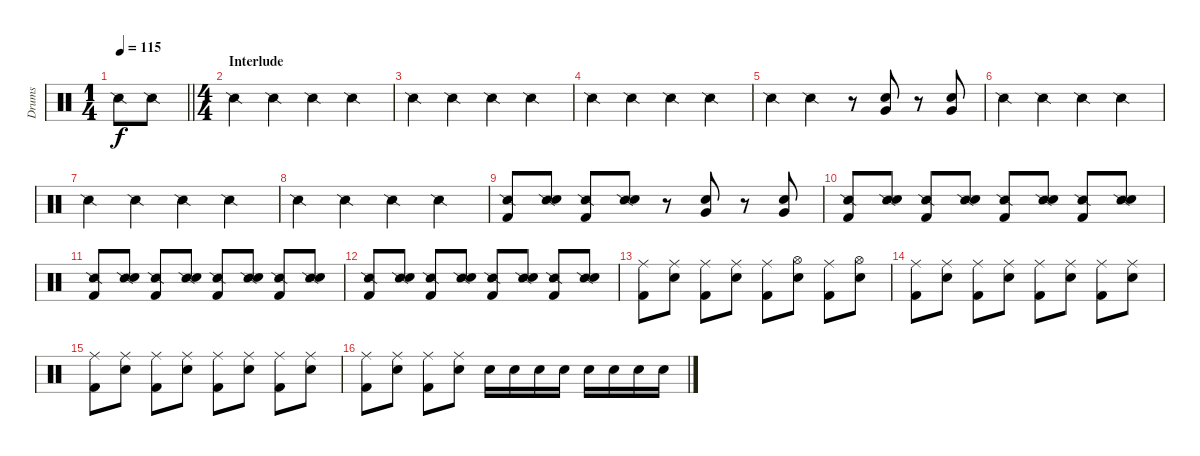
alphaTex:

\track ("Drums" "Drums") {instrument percussion}
\staff {score}
\articulation defaults
\ts (1 4)
\tempo 115
\clef neutral
\barLineRight lightlight
\ks c "Snare (side stick) 2".8{dy f} "Snare (side stick) 2".8
|
\ts (4 4)
\section ("" "Interlude")
"Snare (side stick) 2".4 "Snare (side stick) 2".4 "Snare (side stick) 2".4 "Snare (side stick) 2".4 |
"Snare (side stick) 2".4 "Snare (side stick) 2".4 "Snare (side stick) 2".4 "Snare (side stick) 2".4 |
"Snare (side stick) 2".4 "Snare (side stick) 2".4 "Snare (side stick) 2".4 "Snare (side stick) 2".4 |
"Snare (side stick) 2".4 "Snare (side stick) 2".4 r.8 ("Snare (hit) 2" "Very Low Tom (hit)").8 r.8 ("Snare (hit) 2" "Very Low Tom (hit)").8 |
"Snare (side stick) 2".4 "Snare (side stick) 2".4 "Snare (side stick) 2".4 "Snare (side stick) 2".4 |
"Snare (side stick) 2".4 "Snare (side stick) 2".4 "Snare (side stick) 2".4 "Snare (side stick) 2".4 |
"Snare (side stick) 2".4 "Snare (side stick) 2".4 "Snare (side stick) 2".4 "Snare (side stick) 2".4 |
("Snare (side stick) 2" "Kick (hit) 2").8 ("Snare (side stick) 2" "Snare (hit) 2").8 ("Snare (side stick) 2" "Kick (hit) 2").8 ("Snare (side stick) 2" "Snare (hit) 2").8 r.8 ("Snare (hit) 2" "Very Low Tom (hit)").8 r.8 ("Snare (hit) 2" "Very Low Tom (hit)").8 |
("Snare (side stick) 2" "Kick (hit) 2").8 ("Snare (side stick) 2" "Snare (hit) 2").8 ("Snare (side stick) 2" "Kick (hit) 2").8 ("Snare (side stick) 2" "Snare (hit) 2").8 ("Snare (side stick) 2" "Kick (hit) 2").8 ("Snare (side stick) 2" "Snare (hit) 2").8 ("Snare (side stick) 2" "Kick (hit) 2").8 ("Snare (side stick) 2" "Snare (hit) 2").8 |
("Snare (side stick) 2" "Kick (hit) 2").8 ("Snare (side stick) 2" "Snare (hit) 2").8 ("Snare (side stick) 2" "Kick (hit) 2").8 ("Snare (side stick) 2" "Snare (hit) 2").8 ("Snare (side stick) 2" "Kick (hit) 2").8 ("Snare (side stick) 2" "Snare (hit) 2").8 ("Snare (side stick) 2" "Kick (hit) 2").8 ("Snare (side stick) 2" "Snare (hit) 2").8 |
("Snare (side stick) 2" "Kick (hit) 2").8 ("Snare (side stick) 2" "Snare (hit) 2").8 ("Snare (side stick) 2" "Kick (hit) 2").8 ("Snare (side stick) 2" "Snare (hit) 2").8 ("Snare (side stick) 2" "Kick (hit) 2").8 ("Snare (side stick) 2" "Snare (hit) 2").8 ("Snare (side stick) 2" "Kick (hit) 2").8 ("Snare (side stick) 2" "Snare (hit) 2").8 |
("Ride (middle)" "Kick (hit) 2").8 ("Ride (middle)" "Snare (hit) 2").8 ("Ride (middle)" "Kick (hit) 2").8 ("Ride (middle)" "Snare (hit) 2").8 ("Ride (middle)" "Kick (hit) 2").8 ("Hi-Hat (open)" "Snare (hit) 2").8 ("Ride (middle)" "Kick (hit) 2").8 ("Hi-Hat (open)" "Snare (hit) 2").8 |
("Ride (middle)" "Kick (hit) 2").8 ("Ride (middle)" "Snare (hit) 2").8 ("Ride (middle)" "Kick (hit) 2").8 ("Ride (middle)" "Snare (hit) 2").8 ("Ride (middle)" "Kick (hit) 2").8 ("Ride (middle)" "Snare (hit) 2").8 ("Ride (middle)" "Kick (hit) 2").8 ("Ride (middle)" "Snare (hit) 2").8 |
("Ride (middle)" "Kick (hit) 2").8 ("Ride (middle)" "Snare (hit) 2").8 ("Ride (middle)" "Kick (hit) 2").8 ("Ride (middle)" "Snare (hit) 2").8 ("Ride (middle)" "Kick (hit) 2").8 ("Ride (middle)" "Snare (hit) 2").8 ("Ride (middle)" "Kick (hit) 2").8 ("Ride (middle)" "Snare (hit) 2").8 |
("Ride (middle)" "Kick (hit) 2").8 ("Ride (middle)" "Snare (hit) 2").8 ("Ride (middle)" "Kick (hit) 2").8 ("Ride (middle)" "Snare (hit) 2").8 "Snare (hit) 2".16 "Snare (hit) 2".16 "Snare (hit) 2".16 "Snare (hit) 2".16 "Snare (hit) 2".16 "Snare (hit) 2".16 "Snare (hit) 2".16 "Snare (hit) 2".16
